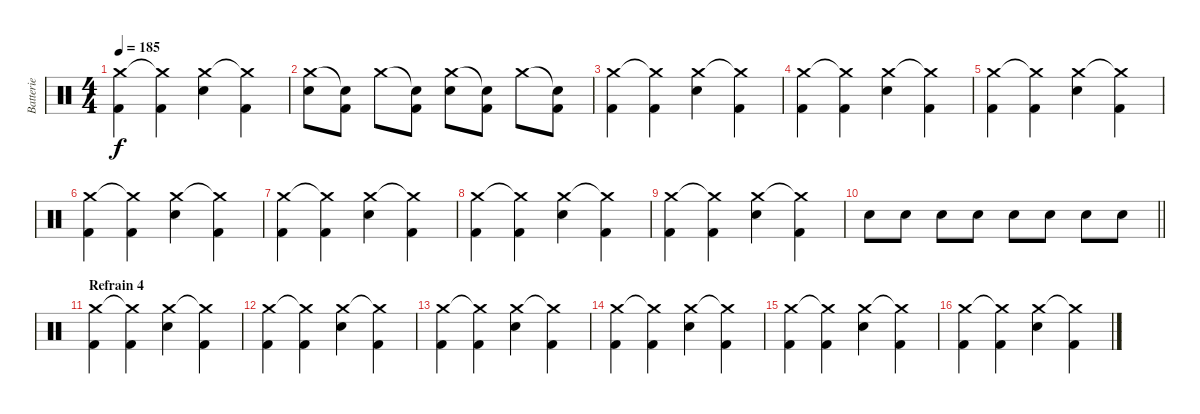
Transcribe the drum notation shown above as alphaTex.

\track ("Batterie" "Batterie") {instrument percussion}
\staff {score}
\articulation defaults
\ts (4 4)
\tempo 185
\clef neutral
\ks c
("Crash medium (hit)" "Kick (hit) 2").4{dy f} ("Crash medium (hit)"{t} "Kick (hit) 2").4 ("Crash medium (hit)" "Electric Snare (hit)").4 ("Crash medium (hit)"{t} "Kick (hit) 2").4 |
("Crash medium (hit)" "Electric Snare (hit)").8 ("Snare (hit)"{t} "Kick (hit) 2").8 "Crash medium (hit)".8 ("Snare (hit)"{t} "Kick (hit) 2").8 ("Crash medium (hit)" "Electric Snare (hit)").8 ("Snare (hit)"{t} "Kick (hit) 2").8 "Crash medium (hit)".8 ("Snare (hit)"{t} "Kick (hit) 2").8 |
("Crash medium (hit)" "Kick (hit) 2").4 ("Crash medium (hit)"{t} "Kick (hit) 2").4 ("Crash medium (hit)" "Electric Snare (hit)").4 ("Crash medium (hit)"{t} "Kick (hit) 2").4 |
("Crash medium (hit)" "Kick (hit) 2").4 ("Crash medium (hit)"{t} "Kick (hit) 2").4 ("Crash medium (hit)" "Electric Snare (hit)").4 ("Crash medium (hit)"{t} "Kick (hit) 2").4 |
("Crash medium (hit)" "Kick (hit) 2").4 ("Crash medium (hit)"{t} "Kick (hit) 2").4 ("Crash medium (hit)" "Electric Snare (hit)").4 ("Crash medium (hit)"{t} "Kick (hit) 2").4 |
("Crash medium (hit)" "Kick (hit) 2").4 ("Crash medium (hit)"{t} "Kick (hit) 2").4 ("Crash medium (hit)" "Electric Snare (hit)").4 ("Crash medium (hit)"{t} "Kick (hit) 2").4 |
("Crash medium (hit)" "Kick (hit) 2").4 ("Crash medium (hit)"{t} "Kick (hit) 2").4 ("Crash medium (hit)" "Electric Snare (hit)").4 ("Crash medium (hit)"{t} "Kick (hit) 2").4 |
("Crash medium (hit)" "Kick (hit) 2").4 ("Crash medium (hit)"{t} "Kick (hit) 2").4 ("Crash medium (hit)" "Electric Snare (hit)").4 ("Crash medium (hit)"{t} "Kick (hit) 2").4 |
("Crash medium (hit)" "Kick (hit) 2").4 ("Crash medium (hit)"{t} "Kick (hit) 2").4 ("Crash medium (hit)" "Electric Snare (hit)").4 ("Crash medium (hit)"{t} "Kick (hit) 2").4 |
\barLineRight lightlight "Electric Snare (hit)".8 "Electric Snare (hit)".8 "Electric Snare (hit)".8 "Electric Snare (hit)".8 "Electric Snare (hit)".8 "Electric Snare (hit)".8 "Electric Snare (hit)".8 "Electric Snare (hit)".8
|
\section ("" "Refrain 4")
("Crash medium (hit)" "Kick (hit) 2").4 ("Crash medium (hit)"{t} "Kick (hit) 2").4 ("Crash medium (hit)" "Electric Snare (hit)").4 ("Crash medium (hit)"{t} "Kick (hit) 2").4 |
("Crash medium (hit)" "Kick (hit) 2").4 ("Crash medium (hit)"{t} "Kick (hit) 2").4 ("Crash medium (hit)" "Electric Snare (hit)").4 ("Crash medium (hit)"{t} "Kick (hit) 2").4 |
("Crash medium (hit)" "Kick (hit) 2").4 ("Crash medium (hit)"{t} "Kick (hit) 2").4 ("Crash medium (hit)" "Electric Snare (hit)").4 ("Crash medium (hit)"{t} "Kick (hit) 2").4 |
("Crash medium (hit)" "Kick (hit) 2").4 ("Crash medium (hit)"{t} "Kick (hit) 2").4 ("Crash medium (hit)" "Electric Snare (hit)").4 ("Crash medium (hit)"{t} "Kick (hit) 2").4 |
("Crash medium (hit)" "Kick (hit) 2").4 ("Crash medium (hit)"{t} "Kick (hit) 2").4 ("Crash medium (hit)" "Electric Snare (hit)").4 ("Crash medium (hit)"{t} "Kick (hit) 2").4 |
("Crash medium (hit)" "Kick (hit) 2").4 ("Crash medium (hit)"{t} "Kick (hit) 2").4 ("Crash medium (hit)" "Electric Snare (hit)").4 ("Crash medium (hit)"{t} "Kick (hit) 2").4
